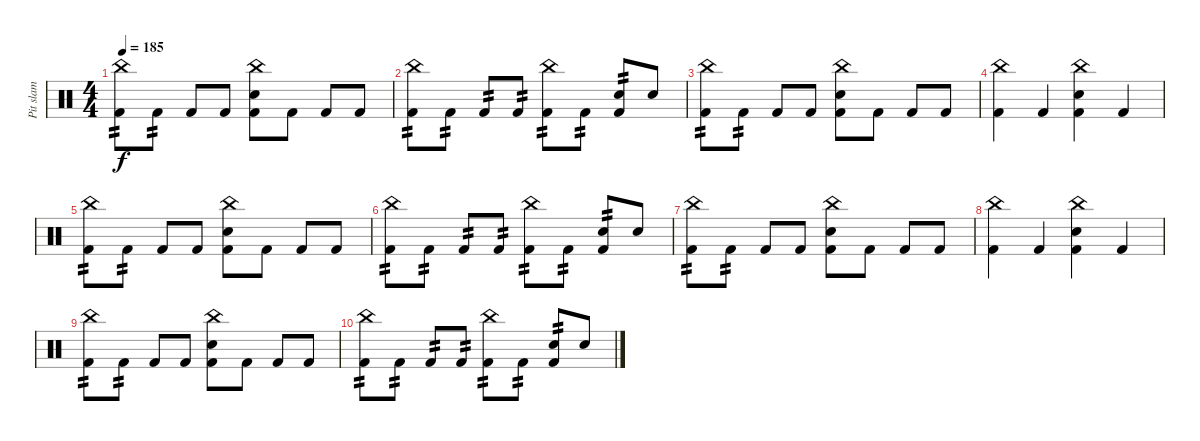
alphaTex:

\track ("Pit slam" "Pit slam") {instrument percussion}
\staff {score}
\articulation defaults
\ts (4 4)
\tempo 185
\clef neutral
\ks c
("China (hit)" "Kick (hit) 2").8{tp 2 dy f} "Kick (hit) 2".8{tp 2} "Kick (hit) 2".8 "Kick (hit) 2".8 ("China (hit)" "Electric Snare (hit)" "Kick (hit) 2").8 "Kick (hit) 2".8 "Kick (hit) 2".8 "Kick (hit) 2".8 |
("China (hit)" "Kick (hit) 2").8{tp 2} "Kick (hit) 2".8{tp 2} "Kick (hit) 2".8{tp 2} "Kick (hit) 2".8{tp 2} ("China (hit)" "Kick (hit) 2").8{tp 2} "Kick (hit) 2".8{tp 2} ("Electric Snare (hit)" "Kick (hit) 2").8{tp 2} "Electric Snare (hit)".8 |
("China (hit)" "Kick (hit) 2").8{tp 2} "Kick (hit) 2".8{tp 2} "Kick (hit) 2".8 "Kick (hit) 2".8 ("China (hit)" "Electric Snare (hit)" "Kick (hit) 2").8 "Kick (hit) 2".8 "Kick (hit) 2".8 "Kick (hit) 2".8 |
("China (hit)" "Kick (hit) 2").4 "Kick (hit) 2".4 ("China (hit)" "Electric Snare (hit)" "Kick (hit) 2").4 "Kick (hit) 2".4 |
("China (hit)" "Kick (hit) 2").8{tp 2} "Kick (hit) 2".8{tp 2} "Kick (hit) 2".8 "Kick (hit) 2".8 ("China (hit)" "Electric Snare (hit)" "Kick (hit) 2").8 "Kick (hit) 2".8 "Kick (hit) 2".8 "Kick (hit) 2".8 |
("China (hit)" "Kick (hit) 2").8{tp 2} "Kick (hit) 2".8{tp 2} "Kick (hit) 2".8{tp 2} "Kick (hit) 2".8{tp 2} ("China (hit)" "Kick (hit) 2").8{tp 2} "Kick (hit) 2".8{tp 2} ("Electric Snare (hit)" "Kick (hit) 2").8{tp 2} "Electric Snare (hit)".8 |
("China (hit)" "Kick (hit) 2").8{tp 2} "Kick (hit) 2".8{tp 2} "Kick (hit) 2".8 "Kick (hit) 2".8 ("China (hit)" "Electric Snare (hit)" "Kick (hit) 2").8 "Kick (hit) 2".8 "Kick (hit) 2".8 "Kick (hit) 2".8 |
("China (hit)" "Kick (hit) 2").4 "Kick (hit) 2".4 ("China (hit)" "Electric Snare (hit)" "Kick (hit) 2").4 "Kick (hit) 2".4 |
("China (hit)" "Kick (hit) 2").8{tp 2} "Kick (hit) 2".8{tp 2} "Kick (hit) 2".8 "Kick (hit) 2".8 ("China (hit)" "Electric Snare (hit)" "Kick (hit) 2").8 "Kick (hit) 2".8 "Kick (hit) 2".8 "Kick (hit) 2".8 |
("China (hit)" "Kick (hit) 2").8{tp 2} "Kick (hit) 2".8{tp 2} "Kick (hit) 2".8{tp 2} "Kick (hit) 2".8{tp 2} ("China (hit)" "Kick (hit) 2").8{tp 2} "Kick (hit) 2".8{tp 2} ("Electric Snare (hit)" "Kick (hit) 2").8{tp 2} "Electric Snare (hit)".8
